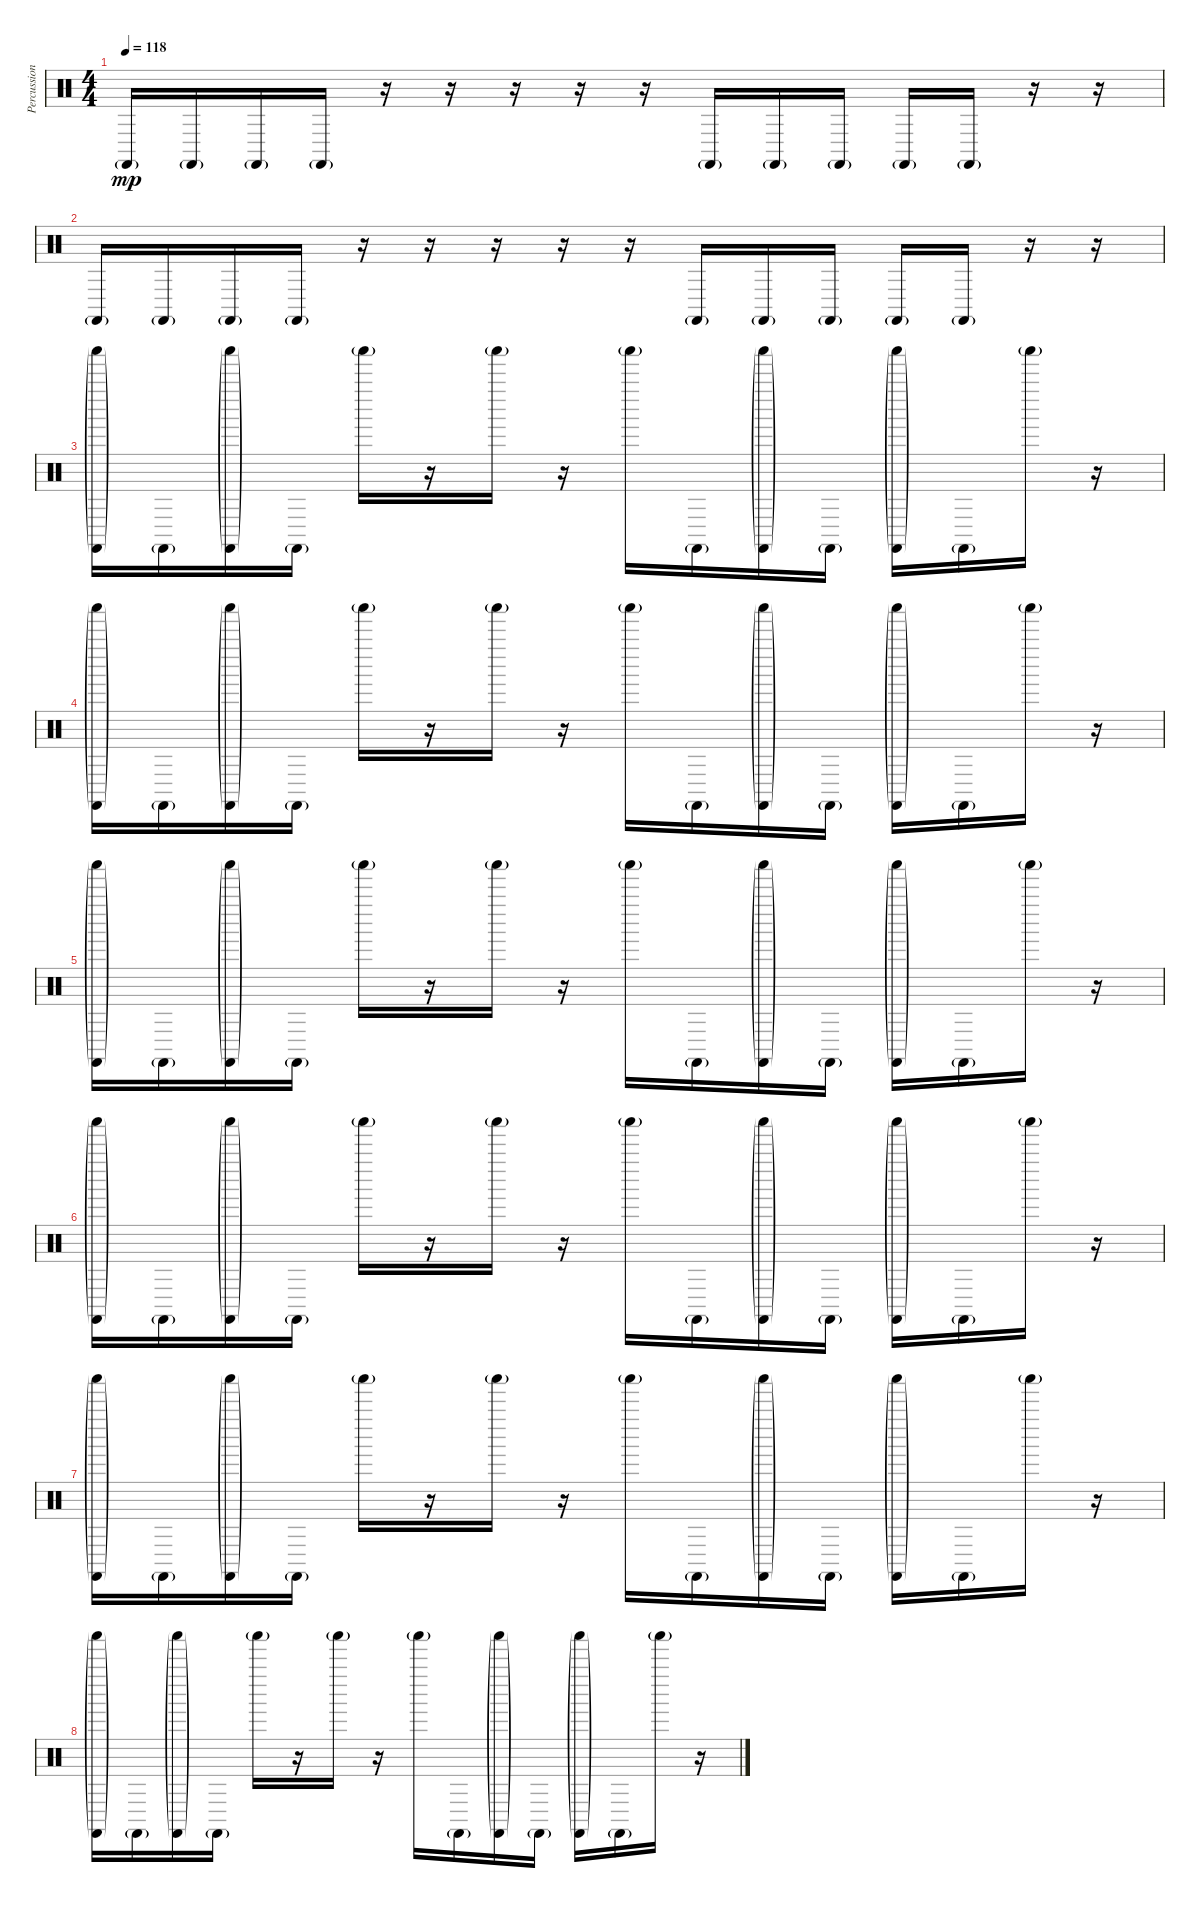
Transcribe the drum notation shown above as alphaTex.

\track ("Percussion" "Percussion") {instrument percussion}
\staff {score}
\articulation defaults
\ts (4 4)
\tempo 118
\clef neutral
\ks c "Castanets (hit)"{g}.16{dy mp} "Castanets (hit)"{g}.16 "Castanets (hit)"{g}.16 "Castanets (hit)"{g}.16
r.16 r.16 r.16 r.16 r.16 "Castanets (hit)"{g}.16 "Castanets (hit)"{g}.16 "Castanets (hit)"{g}.16 "Castanets (hit)"{g}.16 "Castanets (hit)"{g}.16 r.16 r.16 |
"Castanets (hit)"{g}.16 "Castanets (hit)"{g}.16 "Castanets (hit)"{g}.16 "Castanets (hit)"{g}.16 r.16 r.16 r.16 r.16 r.16 "Castanets (hit)"{g}.16 "Castanets (hit)"{g}.16 "Castanets (hit)"{g}.16 "Castanets (hit)"{g}.16 "Castanets (hit)"{g}.16 r.16 r.16 |
("Castanets (hit)"{g} "Shaker (hit)"{g}).16 "Castanets (hit)"{g}.16 ("Castanets (hit)"{g} "Shaker (hit)"{g}).16 "Castanets (hit)"{g}.16 "Shaker (hit)"{g}.16 r.16 "Shaker (hit)"{g}.16 r.16 "Shaker (hit)"{g}.16 "Castanets (hit)"{g}.16 ("Castanets (hit)"{g} "Shaker (hit)"{g}).16 "Castanets (hit)"{g}.16 ("Castanets (hit)"{g} "Shaker (hit)"{g}).16 "Castanets (hit)"{g}.16 "Shaker (hit)"{g}.16 r.16 |
("Castanets (hit)"{g} "Shaker (hit)"{g}).16 "Castanets (hit)"{g}.16 ("Castanets (hit)"{g} "Shaker (hit)"{g}).16 "Castanets (hit)"{g}.16 "Shaker (hit)"{g}.16 r.16 "Shaker (hit)"{g}.16 r.16 "Shaker (hit)"{g}.16 "Castanets (hit)"{g}.16 ("Castanets (hit)"{g} "Shaker (hit)"{g}).16 "Castanets (hit)"{g}.16 ("Castanets (hit)"{g} "Shaker (hit)"{g}).16 "Castanets (hit)"{g}.16 "Shaker (hit)"{g}.16 r.16 |
("Castanets (hit)"{g} "Shaker (hit)"{g}).16 "Castanets (hit)"{g}.16 ("Castanets (hit)"{g} "Shaker (hit)"{g}).16 "Castanets (hit)"{g}.16 "Shaker (hit)"{g}.16 r.16 "Shaker (hit)"{g}.16 r.16 "Shaker (hit)"{g}.16 "Castanets (hit)"{g}.16 ("Castanets (hit)"{g} "Shaker (hit)"{g}).16 "Castanets (hit)"{g}.16 ("Castanets (hit)"{g} "Shaker (hit)"{g}).16 "Castanets (hit)"{g}.16 "Shaker (hit)"{g}.16 r.16 |
("Castanets (hit)"{g} "Shaker (hit)"{g}).16 "Castanets (hit)"{g}.16 ("Castanets (hit)"{g} "Shaker (hit)"{g}).16 "Castanets (hit)"{g}.16 "Shaker (hit)"{g}.16 r.16 "Shaker (hit)"{g}.16 r.16 "Shaker (hit)"{g}.16 "Castanets (hit)"{g}.16 ("Castanets (hit)"{g} "Shaker (hit)"{g}).16 "Castanets (hit)"{g}.16 ("Castanets (hit)"{g} "Shaker (hit)"{g}).16 "Castanets (hit)"{g}.16 "Shaker (hit)"{g}.16 r.16 |
("Castanets (hit)"{g} "Shaker (hit)"{g}).16 "Castanets (hit)"{g}.16 ("Castanets (hit)"{g} "Shaker (hit)"{g}).16 "Castanets (hit)"{g}.16 "Shaker (hit)"{g}.16 r.16 "Shaker (hit)"{g}.16 r.16 "Shaker (hit)"{g}.16 "Castanets (hit)"{g}.16 ("Castanets (hit)"{g} "Shaker (hit)"{g}).16 "Castanets (hit)"{g}.16 ("Castanets (hit)"{g} "Shaker (hit)"{g}).16 "Castanets (hit)"{g}.16 "Shaker (hit)"{g}.16 r.16 |
("Castanets (hit)"{g} "Shaker (hit)"{g}).16 "Castanets (hit)"{g}.16 ("Castanets (hit)"{g} "Shaker (hit)"{g}).16 "Castanets (hit)"{g}.16 "Shaker (hit)"{g}.16 r.16 "Shaker (hit)"{g}.16 r.16 "Shaker (hit)"{g}.16 "Castanets (hit)"{g}.16 ("Castanets (hit)"{g} "Shaker (hit)"{g}).16 "Castanets (hit)"{g}.16 ("Castanets (hit)"{g} "Shaker (hit)"{g}).16 "Castanets (hit)"{g}.16 "Shaker (hit)"{g}.16 r.16
